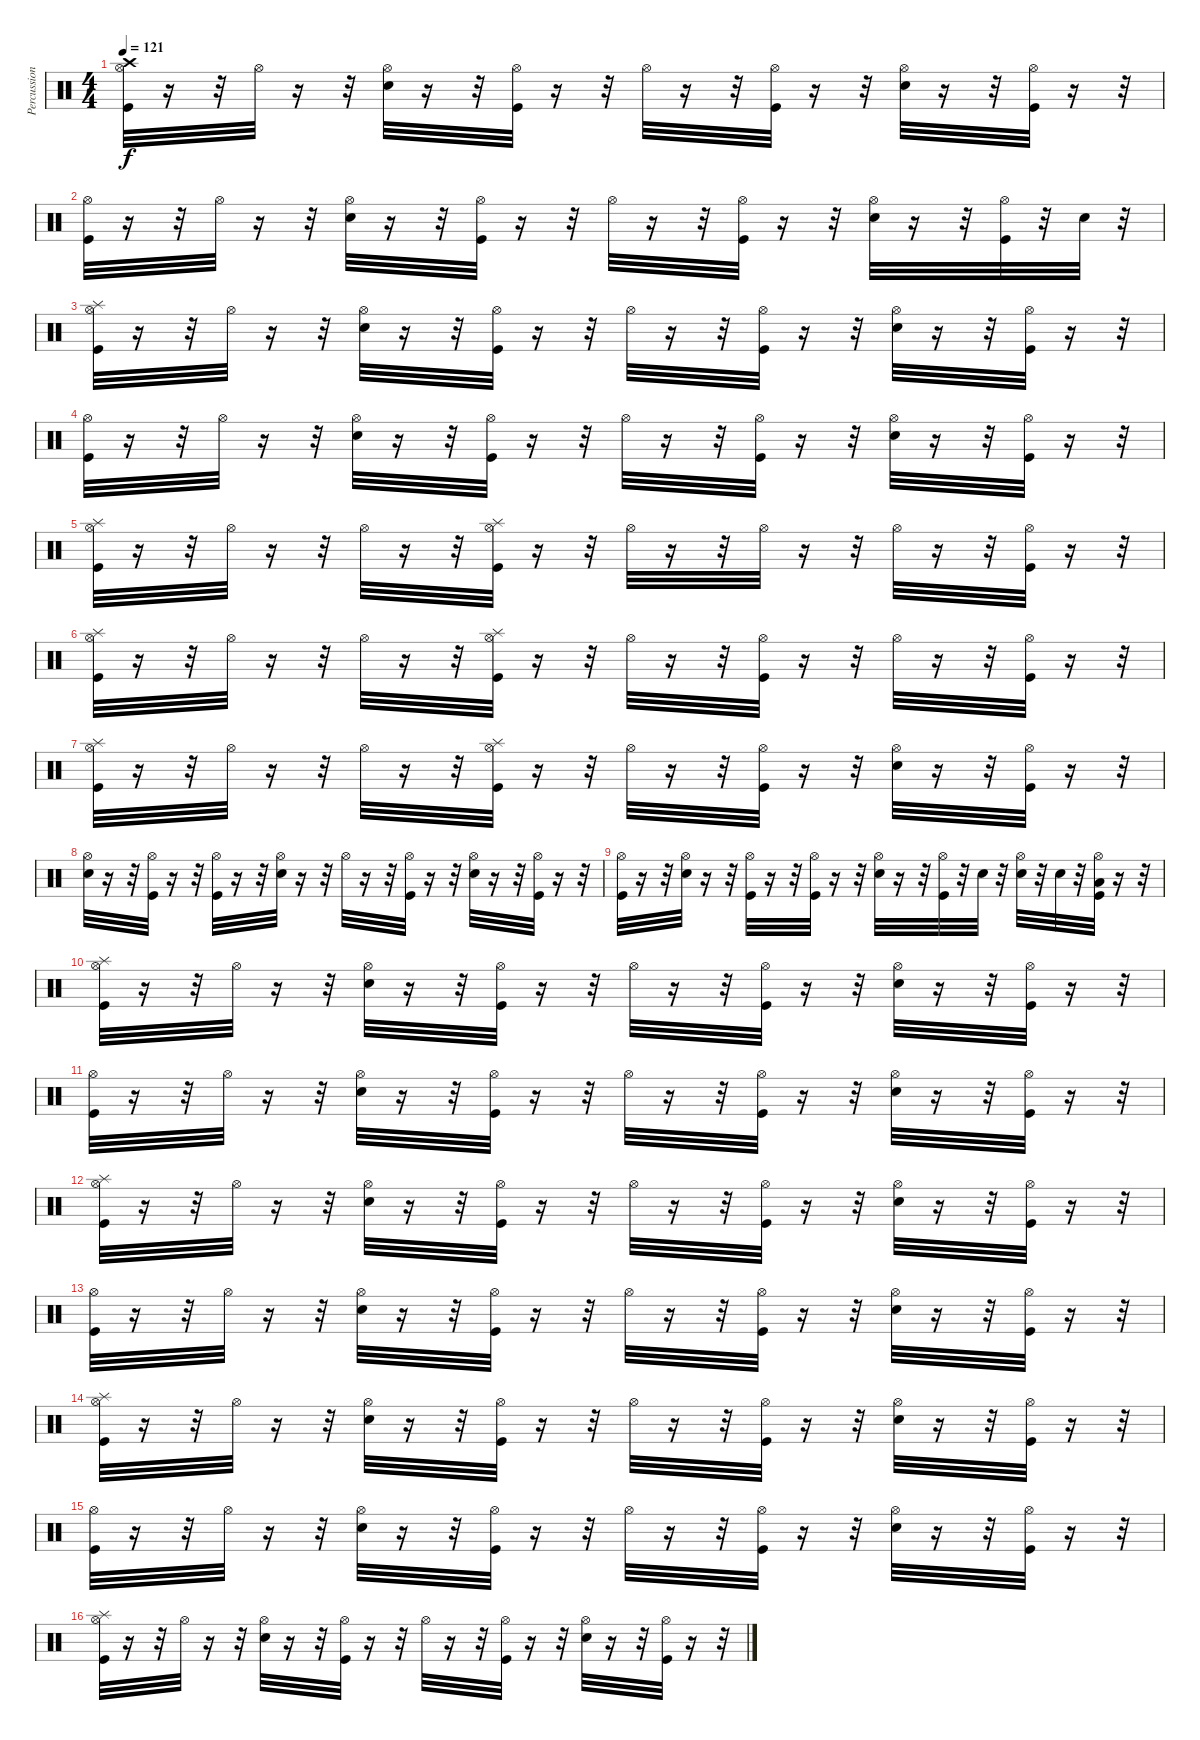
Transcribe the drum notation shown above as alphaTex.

\track ("Percussion" "Percussion") {instrument percussion}
\staff {score}
\articulation defaults
\ts (4 4)
\tempo 121
\clef neutral
\ks c
("Hi-Hat (open)" "Crash high (hit)" "Kick (hit)").32{dy f} r.16 r.32 "Hi-Hat (open)".32 r.16 r.32 ("Hi-Hat (open)" "Snare (hit) 2").32 r.16 r.32 ("Hi-Hat (open)" "Kick (hit)").32 r.16 r.32 "Hi-Hat (open)".32 r.16 r.32 ("Hi-Hat (open)" "Kick (hit)").32 r.16 r.32 ("Hi-Hat (open)" "Snare (hit) 2").32 r.16 r.32 ("Kick (hit)" "Hi-Hat (open)").32 r.16 r.32 |
("Kick (hit)" "Hi-Hat (open)").32 r.16 r.32 "Hi-Hat (open)".32 r.16 r.32 ("Snare (hit) 2" "Hi-Hat (open)").32 r.16 r.32 ("Kick (hit)" "Hi-Hat (open)").32 r.16 r.32 "Hi-Hat (open)".32 r.16 r.32 ("Kick (hit)" "Hi-Hat (open)").32 r.16 r.32 ("Snare (hit) 2" "Hi-Hat (open)").32 r.16 r.32 ("Kick (hit)" "Hi-Hat (open)").32 r.32 "Snare (hit) 2".32 r.32 |
("Kick (hit)" "Hi-Hat (open)" "Splash (hit)").32 r.16 r.32 "Hi-Hat (open)".32 r.16 r.32 ("Snare (hit) 2" "Hi-Hat (open)").32 r.16 r.32 ("Hi-Hat (open)" "Kick (hit)").32 r.16 r.32 "Hi-Hat (open)".32 r.16 r.32 ("Hi-Hat (open)" "Kick (hit)").32 r.16 r.32 ("Hi-Hat (open)" "Snare (hit) 2").32 r.16 r.32 ("Kick (hit)" "Hi-Hat (open)").32 r.16 r.32 |
("Hi-Hat (open)" "Kick (hit)").32 r.16 r.32 "Hi-Hat (open)".32 r.16 r.32 ("Snare (hit) 2" "Hi-Hat (open)").32 r.16 r.32 ("Kick (hit)" "Hi-Hat (open)").32 r.16 r.32 "Hi-Hat (open)".32 r.16 r.32 ("Kick (hit)" "Hi-Hat (open)").32 r.16 r.32 ("Snare (hit) 2" "Hi-Hat (open)").32 r.16 r.32 ("Kick (hit)" "Hi-Hat (open)").32 r.16 r.32 |
("Splash (hit)" "Hi-Hat (open)" "Kick (hit)").32 r.16 r.32 "Hi-Hat (open)".32 r.16 r.32 "Hi-Hat (open)".32 r.16 r.32 ("Kick (hit)" "Hi-Hat (open)" "Splash (hit)").32 r.16 r.32 "Hi-Hat (open)".32 r.16 r.32 "Hi-Hat (open)".32 r.16 r.32 "Hi-Hat (open)".32 r.16 r.32 ("Kick (hit)" "Hi-Hat (open)").32 r.16 r.32 |
("Kick (hit)" "Splash (hit)" "Hi-Hat (open)").32 r.16 r.32 "Hi-Hat (open)".32 r.16 r.32 "Hi-Hat (open)".32 r.16 r.32 ("Kick (hit)" "Hi-Hat (open)" "Splash (hit)").32 r.16 r.32 "Hi-Hat (open)".32 r.16 r.32 ("Hi-Hat (open)" "Kick (hit)").32 r.16 r.32 "Hi-Hat (open)".32 r.16 r.32 ("Kick (hit)" "Hi-Hat (open)").32 r.16 r.32 |
("Hi-Hat (open)" "Kick (hit)" "Splash (hit)").32 r.16 r.32 "Hi-Hat (open)".32 r.16 r.32 "Hi-Hat (open)".32 r.16 r.32 ("Kick (hit)" "Hi-Hat (open)" "Splash (hit)").32 r.16 r.32 "Hi-Hat (open)".32 r.16 r.32 ("Kick (hit)" "Hi-Hat (open)").32 r.16 r.32 ("Snare (hit) 2" "Hi-Hat (open)").32 r.16 r.32 ("Hi-Hat (open)" "Kick (hit)").32 r.16 r.32 |
("Snare (hit) 2" "Hi-Hat (open)").32 r.16 r.32 ("Hi-Hat (open)" "Kick (hit)").32 r.16 r.32 ("Hi-Hat (open)" "Kick (hit)").32 r.16 r.32 ("Hi-Hat (open)" "Snare (hit) 2").32 r.16 r.32 "Hi-Hat (open)".32 r.16 r.32 ("Kick (hit)" "Hi-Hat (open)").32 r.16 r.32 ("Hi-Hat (open)" "Snare (hit) 2").32 r.16 r.32 ("Kick (hit)" "Hi-Hat (open)").32 r.16 r.32 |
("Hi-Hat (open)" "Kick (hit)").32 r.16 r.32 ("Hi-Hat (open)" "Snare (hit) 2").32 r.16 r.32 ("Hi-Hat (open)" "Kick (hit)").32 r.16 r.32 ("Hi-Hat (open)" "Kick (hit)").32 r.16 r.32 ("Hi-Hat (open)" "Snare (hit) 2").32 r.16 r.32 ("Hi-Hat (open)" "Kick (hit)").32 r.32 "Snare (hit) 2".32 r.32 ("Hi-Hat (open)" "Snare (hit) 2").32 r.32 "Snare (hit) 2".32 r.32 ("Hi-Hat (open)" "Kick (hit)" "Low Floor Tom (hit)").32 r.16 r.32 |
("Hi-Hat (open)" "Splash (hit)" "Kick (hit)").32 r.16 r.32 "Hi-Hat (open)".32 r.16 r.32 ("Hi-Hat (open)" "Snare (hit) 2").32 r.16 r.32 ("Hi-Hat (open)" "Kick (hit)").32 r.16 r.32 "Hi-Hat (open)".32 r.16 r.32 ("Hi-Hat (open)" "Kick (hit)").32 r.16 r.32 ("Hi-Hat (open)" "Snare (hit) 2").32 r.16 r.32 ("Hi-Hat (open)" "Kick (hit)").32 r.16 r.32 |
("Hi-Hat (open)" "Kick (hit)").32 r.16 r.32 "Hi-Hat (open)".32 r.16 r.32 ("Hi-Hat (open)" "Snare (hit) 2").32 r.16 r.32 ("Hi-Hat (open)" "Kick (hit)").32 r.16 r.32 "Hi-Hat (open)".32 r.16 r.32 ("Hi-Hat (open)" "Kick (hit)").32 r.16 r.32 ("Hi-Hat (open)" "Snare (hit) 2").32 r.16 r.32 ("Kick (hit)" "Hi-Hat (open)").32 r.16 r.32 |
("Hi-Hat (open)" "Splash (hit)" "Kick (hit)").32 r.16 r.32 "Hi-Hat (open)".32 r.16 r.32 ("Hi-Hat (open)" "Snare (hit) 2").32 r.16 r.32 ("Hi-Hat (open)" "Kick (hit)").32 r.16 r.32 "Hi-Hat (open)".32 r.16 r.32 ("Hi-Hat (open)" "Kick (hit)").32 r.16 r.32 ("Hi-Hat (open)" "Snare (hit) 2").32 r.16 r.32 ("Hi-Hat (open)" "Kick (hit)").32 r.16 r.32 |
("Hi-Hat (open)" "Kick (hit)").32 r.16 r.32 "Hi-Hat (open)".32 r.16 r.32 ("Hi-Hat (open)" "Snare (hit) 2").32 r.16 r.32 ("Hi-Hat (open)" "Kick (hit)").32 r.16 r.32 "Hi-Hat (open)".32 r.16 r.32 ("Hi-Hat (open)" "Kick (hit)").32 r.16 r.32 ("Hi-Hat (open)" "Snare (hit) 2").32 r.16 r.32 ("Kick (hit)" "Hi-Hat (open)").32 r.16 r.32 |
("Hi-Hat (open)" "Splash (hit)" "Kick (hit)").32 r.16 r.32 "Hi-Hat (open)".32 r.16 r.32 ("Hi-Hat (open)" "Snare (hit) 2").32 r.16 r.32 ("Hi-Hat (open)" "Kick (hit)").32 r.16 r.32 "Hi-Hat (open)".32 r.16 r.32 ("Hi-Hat (open)" "Kick (hit)").32 r.16 r.32 ("Hi-Hat (open)" "Snare (hit) 2").32 r.16 r.32 ("Hi-Hat (open)" "Kick (hit)").32 r.16 r.32 |
("Hi-Hat (open)" "Kick (hit)").32 r.16 r.32 "Hi-Hat (open)".32 r.16 r.32 ("Hi-Hat (open)" "Snare (hit) 2").32 r.16 r.32 ("Hi-Hat (open)" "Kick (hit)").32 r.16 r.32 "Hi-Hat (open)".32 r.16 r.32 ("Hi-Hat (open)" "Kick (hit)").32 r.16 r.32 ("Hi-Hat (open)" "Snare (hit) 2").32 r.16 r.32 ("Kick (hit)" "Hi-Hat (open)").32 r.16 r.32 |
("Hi-Hat (open)" "Splash (hit)" "Kick (hit)").32 r.16 r.32 "Hi-Hat (open)".32 r.16 r.32 ("Hi-Hat (open)" "Snare (hit) 2").32 r.16 r.32 ("Hi-Hat (open)" "Kick (hit)").32 r.16 r.32 "Hi-Hat (open)".32 r.16 r.32 ("Hi-Hat (open)" "Kick (hit)").32 r.16 r.32 ("Hi-Hat (open)" "Snare (hit) 2").32 r.16 r.32 ("Hi-Hat (open)" "Kick (hit)").32 r.16 r.32
